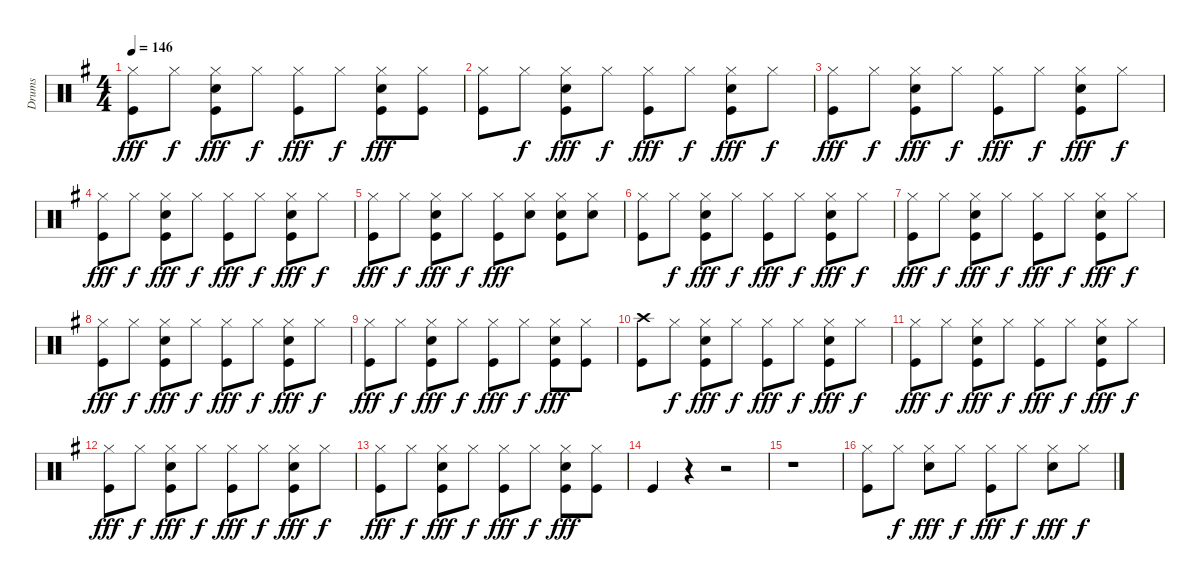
\track ("Drums" "Drums") {instrument percussion}
\staff {score}
\articulation defaults
\ts (4 4)
\tempo 146
\clef neutral
\ks g
("Hi-Hat (closed)" "Kick (hit)").8{dy fff} "Hi-Hat (closed)".8{dy f} ("Hi-Hat (closed)" "Snare (hit) 2" "Kick (hit)").8{dy fff} "Hi-Hat (closed)".8{dy f} ("Hi-Hat (closed)" "Kick (hit)").8{dy fff} "Hi-Hat (closed)".8{dy f} ("Hi-Hat (closed)" "Snare (hit) 2" "Kick (hit)").8{dy fff} ("Hi-Hat (closed)" "Kick (hit)").8 |
("Hi-Hat (closed)" "Kick (hit)").8 "Hi-Hat (closed)".8{dy f} ("Hi-Hat (closed)" "Snare (hit) 2" "Kick (hit)").8{dy fff} "Hi-Hat (closed)".8{dy f} ("Hi-Hat (closed)" "Kick (hit)").8{dy fff} "Hi-Hat (closed)".8{dy f} ("Hi-Hat (closed)" "Snare (hit) 2" "Kick (hit)").8{dy fff} "Hi-Hat (closed)".8{dy f} |
("Hi-Hat (closed)" "Kick (hit)").8{dy fff} "Hi-Hat (closed)".8{dy f} ("Hi-Hat (closed)" "Snare (hit) 2" "Kick (hit)").8{dy fff} "Hi-Hat (closed)".8{dy f} ("Hi-Hat (closed)" "Kick (hit)").8{dy fff} "Hi-Hat (closed)".8{dy f} ("Hi-Hat (closed)" "Snare (hit) 2" "Kick (hit)").8{dy fff} "Hi-Hat (closed)".8{dy f} |
("Hi-Hat (closed)" "Kick (hit)").8{dy fff} "Hi-Hat (closed)".8{dy f} ("Hi-Hat (closed)" "Snare (hit) 2" "Kick (hit)").8{dy fff} "Hi-Hat (closed)".8{dy f} ("Hi-Hat (closed)" "Kick (hit)").8{dy fff} "Hi-Hat (closed)".8{dy f} ("Hi-Hat (closed)" "Snare (hit) 2" "Kick (hit)").8{dy fff} "Hi-Hat (closed)".8{dy f} |
("Hi-Hat (closed)" "Kick (hit)").8{dy fff} "Hi-Hat (closed)".8{dy f} ("Hi-Hat (closed)" "Snare (hit) 2" "Kick (hit)").8{dy fff} "Hi-Hat (closed)".8{dy f} ("Hi-Hat (closed)" "Kick (hit)").8{dy fff} ("Hi-Hat (closed)" "Snare (hit) 2").8 ("Hi-Hat (closed)" "Snare (hit) 2" "Kick (hit)").8 ("Hi-Hat (closed)" "Snare (hit) 2").8 |
("Hi-Hat (closed)" "Kick (hit)").8 "Hi-Hat (closed)".8{dy f} ("Hi-Hat (closed)" "Snare (hit) 2" "Kick (hit)").8{dy fff} "Hi-Hat (closed)".8{dy f} ("Hi-Hat (closed)" "Kick (hit)").8{dy fff} "Hi-Hat (closed)".8{dy f} ("Hi-Hat (closed)" "Snare (hit) 2" "Kick (hit)").8{dy fff} "Hi-Hat (closed)".8{dy f} |
("Hi-Hat (closed)" "Kick (hit)").8{dy fff} "Hi-Hat (closed)".8{dy f} ("Hi-Hat (closed)" "Snare (hit) 2" "Kick (hit)").8{dy fff} "Hi-Hat (closed)".8{dy f} ("Hi-Hat (closed)" "Kick (hit)").8{dy fff} "Hi-Hat (closed)".8{dy f} ("Hi-Hat (closed)" "Snare (hit) 2" "Kick (hit)").8{dy fff} "Hi-Hat (closed)".8{dy f} |
("Hi-Hat (closed)" "Kick (hit)").8{dy fff} "Hi-Hat (closed)".8{dy f} ("Hi-Hat (closed)" "Snare (hit) 2" "Kick (hit)").8{dy fff} "Hi-Hat (closed)".8{dy f} ("Hi-Hat (closed)" "Kick (hit)").8{dy fff} "Hi-Hat (closed)".8{dy f} ("Hi-Hat (closed)" "Snare (hit) 2" "Kick (hit)").8{dy fff} "Hi-Hat (closed)".8{dy f} |
("Hi-Hat (closed)" "Kick (hit)").8{dy fff} "Hi-Hat (closed)".8{dy f} ("Hi-Hat (closed)" "Snare (hit) 2" "Kick (hit)").8{dy fff} "Hi-Hat (closed)".8{dy f} ("Hi-Hat (closed)" "Kick (hit)").8{dy fff} "Hi-Hat (closed)".8{dy f} ("Hi-Hat (closed)" "Snare (hit) 2" "Kick (hit)").8{dy fff} ("Hi-Hat (closed)" "Kick (hit)").8 |
("Crash high (hit)" "Kick (hit)").8 "Hi-Hat (closed)".8{dy f} ("Hi-Hat (closed)" "Snare (hit) 2" "Kick (hit)").8{dy fff} "Hi-Hat (closed)".8{dy f} ("Hi-Hat (closed)" "Kick (hit)").8{dy fff} "Hi-Hat (closed)".8{dy f} ("Hi-Hat (closed)" "Snare (hit) 2" "Kick (hit)").8{dy fff} "Hi-Hat (closed)".8{dy f} |
("Hi-Hat (closed)" "Kick (hit)").8{dy fff} "Hi-Hat (closed)".8{dy f} ("Hi-Hat (closed)" "Snare (hit) 2" "Kick (hit)").8{dy fff} "Hi-Hat (closed)".8{dy f} ("Hi-Hat (closed)" "Kick (hit)").8{dy fff} "Hi-Hat (closed)".8{dy f} ("Hi-Hat (closed)" "Snare (hit) 2" "Kick (hit)").8{dy fff} "Hi-Hat (closed)".8{dy f} |
("Hi-Hat (closed)" "Kick (hit)").8{dy fff} "Hi-Hat (closed)".8{dy f} ("Hi-Hat (closed)" "Snare (hit) 2" "Kick (hit)").8{dy fff} "Hi-Hat (closed)".8{dy f} ("Hi-Hat (closed)" "Kick (hit)").8{dy fff} "Hi-Hat (closed)".8{dy f} ("Hi-Hat (closed)" "Snare (hit) 2" "Kick (hit)").8{dy fff} "Hi-Hat (closed)".8{dy f} |
("Hi-Hat (closed)" "Kick (hit)").8{dy fff} "Hi-Hat (closed)".8{dy f} ("Hi-Hat (closed)" "Snare (hit) 2" "Kick (hit)").8{dy fff} "Hi-Hat (closed)".8{dy f} ("Hi-Hat (closed)" "Kick (hit)").8{dy fff} "Hi-Hat (closed)".8{dy f} ("Hi-Hat (closed)" "Snare (hit) 2" "Kick (hit)").8{dy fff} ("Hi-Hat (closed)" "Kick (hit)").8 |
"Kick (hit)".4 r.4 r.2 |
r.1 |
("Hi-Hat (closed)" "Kick (hit)").8 "Hi-Hat (closed)".8{dy f} ("Hi-Hat (closed)" "Snare (hit) 2").8{dy fff} "Hi-Hat (closed)".8{dy f} ("Hi-Hat (closed)" "Kick (hit)").8{dy fff} "Hi-Hat (closed)".8{dy f} ("Hi-Hat (closed)" "Snare (hit) 2").8{dy fff} "Hi-Hat (closed)".8{dy f}
